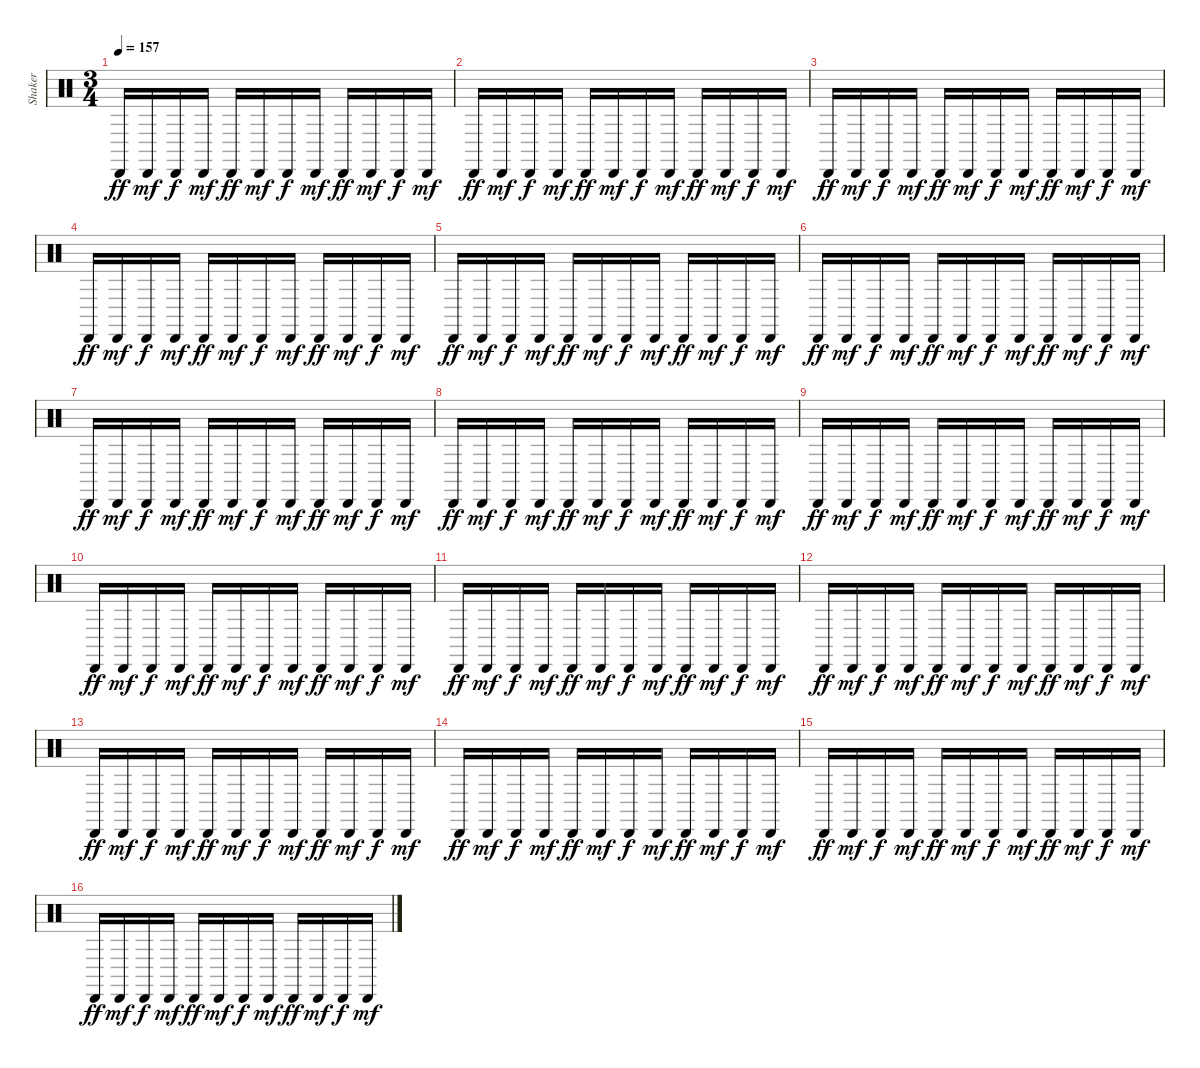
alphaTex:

\track ("Shaker" "Shaker") {instrument percussion}
\staff {score}
\articulation defaults
\ts (3 4)
\tempo 157
\clef neutral
\ks c "Cabasa (hit)".16{dy ff} "Cabasa (hit)".16{dy mf} "Cabasa (hit)".16{dy f} "Cabasa (hit)".16{dy mf} "Cabasa (hit)".16{dy ff} "Cabasa (hit)".16{dy mf} "Cabasa (hit)".16{dy f} "Cabasa (hit)".16{dy mf} "Cabasa (hit)".16{dy ff} "Cabasa (hit)".16{dy mf} "Cabasa (hit)".16{dy f} "Cabasa (hit)".16{dy mf}
|
"Cabasa (hit)".16{dy ff} "Cabasa (hit)".16{dy mf} "Cabasa (hit)".16{dy f} "Cabasa (hit)".16{dy mf} "Cabasa (hit)".16{dy ff} "Cabasa (hit)".16{dy mf} "Cabasa (hit)".16{dy f} "Cabasa (hit)".16{dy mf} "Cabasa (hit)".16{dy ff} "Cabasa (hit)".16{dy mf} "Cabasa (hit)".16{dy f} "Cabasa (hit)".16{dy mf} |
"Cabasa (hit)".16{dy ff} "Cabasa (hit)".16{dy mf} "Cabasa (hit)".16{dy f} "Cabasa (hit)".16{dy mf} "Cabasa (hit)".16{dy ff} "Cabasa (hit)".16{dy mf} "Cabasa (hit)".16{dy f} "Cabasa (hit)".16{dy mf} "Cabasa (hit)".16{dy ff} "Cabasa (hit)".16{dy mf} "Cabasa (hit)".16{dy f} "Cabasa (hit)".16{dy mf} |
"Cabasa (hit)".16{dy ff} "Cabasa (hit)".16{dy mf} "Cabasa (hit)".16{dy f} "Cabasa (hit)".16{dy mf} "Cabasa (hit)".16{dy ff} "Cabasa (hit)".16{dy mf} "Cabasa (hit)".16{dy f} "Cabasa (hit)".16{dy mf} "Cabasa (hit)".16{dy ff} "Cabasa (hit)".16{dy mf} "Cabasa (hit)".16{dy f} "Cabasa (hit)".16{dy mf} |
"Cabasa (hit)".16{dy ff} "Cabasa (hit)".16{dy mf} "Cabasa (hit)".16{dy f} "Cabasa (hit)".16{dy mf} "Cabasa (hit)".16{dy ff} "Cabasa (hit)".16{dy mf} "Cabasa (hit)".16{dy f} "Cabasa (hit)".16{dy mf} "Cabasa (hit)".16{dy ff} "Cabasa (hit)".16{dy mf} "Cabasa (hit)".16{dy f} "Cabasa (hit)".16{dy mf} |
"Cabasa (hit)".16{dy ff} "Cabasa (hit)".16{dy mf} "Cabasa (hit)".16{dy f} "Cabasa (hit)".16{dy mf} "Cabasa (hit)".16{dy ff} "Cabasa (hit)".16{dy mf} "Cabasa (hit)".16{dy f} "Cabasa (hit)".16{dy mf} "Cabasa (hit)".16{dy ff} "Cabasa (hit)".16{dy mf} "Cabasa (hit)".16{dy f} "Cabasa (hit)".16{dy mf} |
"Cabasa (hit)".16{dy ff} "Cabasa (hit)".16{dy mf} "Cabasa (hit)".16{dy f} "Cabasa (hit)".16{dy mf} "Cabasa (hit)".16{dy ff} "Cabasa (hit)".16{dy mf} "Cabasa (hit)".16{dy f} "Cabasa (hit)".16{dy mf} "Cabasa (hit)".16{dy ff} "Cabasa (hit)".16{dy mf} "Cabasa (hit)".16{dy f} "Cabasa (hit)".16{dy mf} |
"Cabasa (hit)".16{dy ff} "Cabasa (hit)".16{dy mf} "Cabasa (hit)".16{dy f} "Cabasa (hit)".16{dy mf} "Cabasa (hit)".16{dy ff} "Cabasa (hit)".16{dy mf} "Cabasa (hit)".16{dy f} "Cabasa (hit)".16{dy mf} "Cabasa (hit)".16{dy ff} "Cabasa (hit)".16{dy mf} "Cabasa (hit)".16{dy f} "Cabasa (hit)".16{dy mf} |
"Cabasa (hit)".16{dy ff} "Cabasa (hit)".16{dy mf} "Cabasa (hit)".16{dy f} "Cabasa (hit)".16{dy mf} "Cabasa (hit)".16{dy ff} "Cabasa (hit)".16{dy mf} "Cabasa (hit)".16{dy f} "Cabasa (hit)".16{dy mf} "Cabasa (hit)".16{dy ff} "Cabasa (hit)".16{dy mf} "Cabasa (hit)".16{dy f} "Cabasa (hit)".16{dy mf} |
"Cabasa (hit)".16{dy ff} "Cabasa (hit)".16{dy mf} "Cabasa (hit)".16{dy f} "Cabasa (hit)".16{dy mf} "Cabasa (hit)".16{dy ff} "Cabasa (hit)".16{dy mf} "Cabasa (hit)".16{dy f} "Cabasa (hit)".16{dy mf} "Cabasa (hit)".16{dy ff} "Cabasa (hit)".16{dy mf} "Cabasa (hit)".16{dy f} "Cabasa (hit)".16{dy mf} |
"Cabasa (hit)".16{dy ff} "Cabasa (hit)".16{dy mf} "Cabasa (hit)".16{dy f} "Cabasa (hit)".16{dy mf} "Cabasa (hit)".16{dy ff} "Cabasa (hit)".16{dy mf} "Cabasa (hit)".16{dy f} "Cabasa (hit)".16{dy mf} "Cabasa (hit)".16{dy ff} "Cabasa (hit)".16{dy mf} "Cabasa (hit)".16{dy f} "Cabasa (hit)".16{dy mf} |
"Cabasa (hit)".16{dy ff} "Cabasa (hit)".16{dy mf} "Cabasa (hit)".16{dy f} "Cabasa (hit)".16{dy mf} "Cabasa (hit)".16{dy ff} "Cabasa (hit)".16{dy mf} "Cabasa (hit)".16{dy f} "Cabasa (hit)".16{dy mf} "Cabasa (hit)".16{dy ff} "Cabasa (hit)".16{dy mf} "Cabasa (hit)".16{dy f} "Cabasa (hit)".16{dy mf} |
"Cabasa (hit)".16{dy ff} "Cabasa (hit)".16{dy mf} "Cabasa (hit)".16{dy f} "Cabasa (hit)".16{dy mf} "Cabasa (hit)".16{dy ff} "Cabasa (hit)".16{dy mf} "Cabasa (hit)".16{dy f} "Cabasa (hit)".16{dy mf} "Cabasa (hit)".16{dy ff} "Cabasa (hit)".16{dy mf} "Cabasa (hit)".16{dy f} "Cabasa (hit)".16{dy mf} |
"Cabasa (hit)".16{dy ff} "Cabasa (hit)".16{dy mf} "Cabasa (hit)".16{dy f} "Cabasa (hit)".16{dy mf} "Cabasa (hit)".16{dy ff} "Cabasa (hit)".16{dy mf} "Cabasa (hit)".16{dy f} "Cabasa (hit)".16{dy mf} "Cabasa (hit)".16{dy ff} "Cabasa (hit)".16{dy mf} "Cabasa (hit)".16{dy f} "Cabasa (hit)".16{dy mf} |
"Cabasa (hit)".16{dy ff} "Cabasa (hit)".16{dy mf} "Cabasa (hit)".16{dy f} "Cabasa (hit)".16{dy mf} "Cabasa (hit)".16{dy ff} "Cabasa (hit)".16{dy mf} "Cabasa (hit)".16{dy f} "Cabasa (hit)".16{dy mf} "Cabasa (hit)".16{dy ff} "Cabasa (hit)".16{dy mf} "Cabasa (hit)".16{dy f} "Cabasa (hit)".16{dy mf} |
"Cabasa (hit)".16{dy ff} "Cabasa (hit)".16{dy mf} "Cabasa (hit)".16{dy f} "Cabasa (hit)".16{dy mf} "Cabasa (hit)".16{dy ff} "Cabasa (hit)".16{dy mf} "Cabasa (hit)".16{dy f} "Cabasa (hit)".16{dy mf} "Cabasa (hit)".16{dy ff} "Cabasa (hit)".16{dy mf} "Cabasa (hit)".16{dy f} "Cabasa (hit)".16{dy mf}
